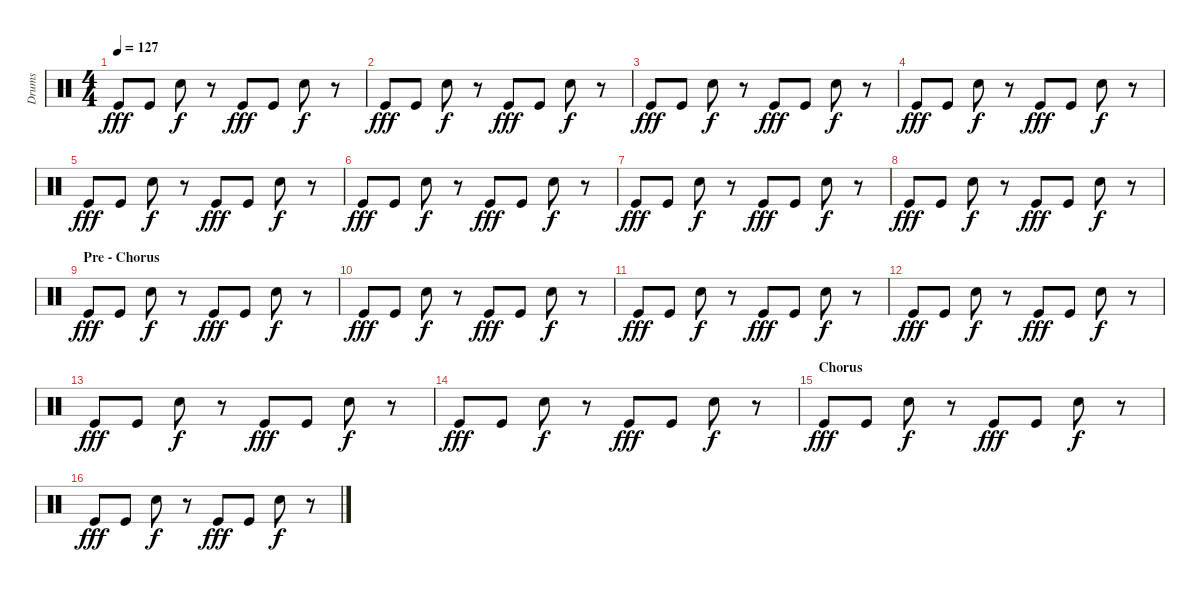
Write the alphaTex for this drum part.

\track ("Drums" "Drums") {instrument percussion}
\staff {score}
\articulation defaults
\ts (4 4)
\tempo 127
\clef neutral
\ks c "Kick (hit)".8{dy fff} "Kick (hit)".8 "Electric Snare (hit)".8{dy f}
r.8 "Kick (hit)".8{dy fff} "Kick (hit)".8 "Electric Snare (hit)".8{dy f} r.8 |
"Kick (hit)".8{dy fff} "Kick (hit)".8 "Electric Snare (hit)".8{dy f} r.8 "Kick (hit)".8{dy fff} "Kick (hit)".8 "Electric Snare (hit)".8{dy f} r.8 |
"Kick (hit)".8{dy fff} "Kick (hit)".8 "Electric Snare (hit)".8{dy f} r.8 "Kick (hit)".8{dy fff} "Kick (hit)".8 "Electric Snare (hit)".8{dy f} r.8 |
"Kick (hit)".8{dy fff} "Kick (hit)".8 "Electric Snare (hit)".8{dy f} r.8 "Kick (hit)".8{dy fff} "Kick (hit)".8 "Electric Snare (hit)".8{dy f} r.8 |
"Kick (hit)".8{dy fff} "Kick (hit)".8 "Electric Snare (hit)".8{dy f} r.8 "Kick (hit)".8{dy fff} "Kick (hit)".8 "Electric Snare (hit)".8{dy f} r.8 |
"Kick (hit)".8{dy fff} "Kick (hit)".8 "Electric Snare (hit)".8{dy f} r.8 "Kick (hit)".8{dy fff} "Kick (hit)".8 "Electric Snare (hit)".8{dy f} r.8 |
"Kick (hit)".8{dy fff} "Kick (hit)".8 "Electric Snare (hit)".8{dy f} r.8 "Kick (hit)".8{dy fff} "Kick (hit)".8 "Electric Snare (hit)".8{dy f} r.8 |
"Kick (hit)".8{dy fff} "Kick (hit)".8 "Electric Snare (hit)".8{dy f} r.8 "Kick (hit)".8{dy fff} "Kick (hit)".8 "Electric Snare (hit)".8{dy f} r.8 |
\section ("" "Pre - Chorus")
"Kick (hit)".8{dy fff} "Kick (hit)".8 "Electric Snare (hit)".8{dy f} r.8 "Kick (hit)".8{dy fff} "Kick (hit)".8 "Electric Snare (hit)".8{dy f} r.8 |
"Kick (hit)".8{dy fff} "Kick (hit)".8 "Electric Snare (hit)".8{dy f} r.8 "Kick (hit)".8{dy fff} "Kick (hit)".8 "Electric Snare (hit)".8{dy f} r.8 |
"Kick (hit)".8{dy fff} "Kick (hit)".8 "Electric Snare (hit)".8{dy f} r.8 "Kick (hit)".8{dy fff} "Kick (hit)".8 "Electric Snare (hit)".8{dy f} r.8 |
"Kick (hit)".8{dy fff} "Kick (hit)".8 "Electric Snare (hit)".8{dy f} r.8 "Kick (hit)".8{dy fff} "Kick (hit)".8 "Electric Snare (hit)".8{dy f} r.8 |
"Kick (hit)".8{dy fff} "Kick (hit)".8 "Electric Snare (hit)".8{dy f} r.8 "Kick (hit)".8{dy fff} "Kick (hit)".8 "Electric Snare (hit)".8{dy f} r.8 |
"Kick (hit)".8{dy fff} "Kick (hit)".8 "Electric Snare (hit)".8{dy f} r.8 "Kick (hit)".8{dy fff} "Kick (hit)".8 "Electric Snare (hit)".8{dy f} r.8 |
\section ("" "Chorus")
"Kick (hit)".8{dy fff} "Kick (hit)".8 "Electric Snare (hit)".8{dy f} r.8 "Kick (hit)".8{dy fff} "Kick (hit)".8 "Electric Snare (hit)".8{dy f} r.8 |
"Kick (hit)".8{dy fff} "Kick (hit)".8 "Electric Snare (hit)".8{dy f} r.8 "Kick (hit)".8{dy fff} "Kick (hit)".8 "Electric Snare (hit)".8{dy f} r.8
